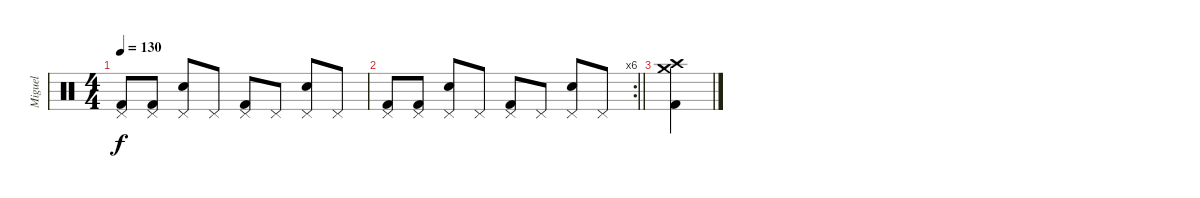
\track ("Miguel" "Miguel") {instrument percussion}
\staff {score}
\articulation defaults
\ts (4 4)
\tempo 130
\clef neutral
\ks c
("Pedal Hi-Hat (hit)" "Kick (hit) 2").8{dy f} ("Pedal Hi-Hat (hit)" "Kick (hit) 2").8 ("Pedal Hi-Hat (hit)" "Snare (hit) 2").8 "Pedal Hi-Hat (hit)".8 ("Pedal Hi-Hat (hit)" "Kick (hit) 2").8 "Pedal Hi-Hat (hit)".8 ("Pedal Hi-Hat (hit)" "Snare (hit) 2").8 "Pedal Hi-Hat (hit)".8 |
\rc 6
\barLineRight lightlight
("Pedal Hi-Hat (hit)" "Kick (hit) 2").8 ("Pedal Hi-Hat (hit)" "Kick (hit) 2").8 ("Pedal Hi-Hat (hit)" "Snare (hit) 2").8 "Pedal Hi-Hat (hit)".8 ("Pedal Hi-Hat (hit)" "Kick (hit) 2").8 "Pedal Hi-Hat (hit)".8 ("Pedal Hi-Hat (hit)" "Snare (hit) 2").8 "Pedal Hi-Hat (hit)".8 |
("Crash medium (hit)" "Crash high (hit)" "Kick (hit) 2").4
